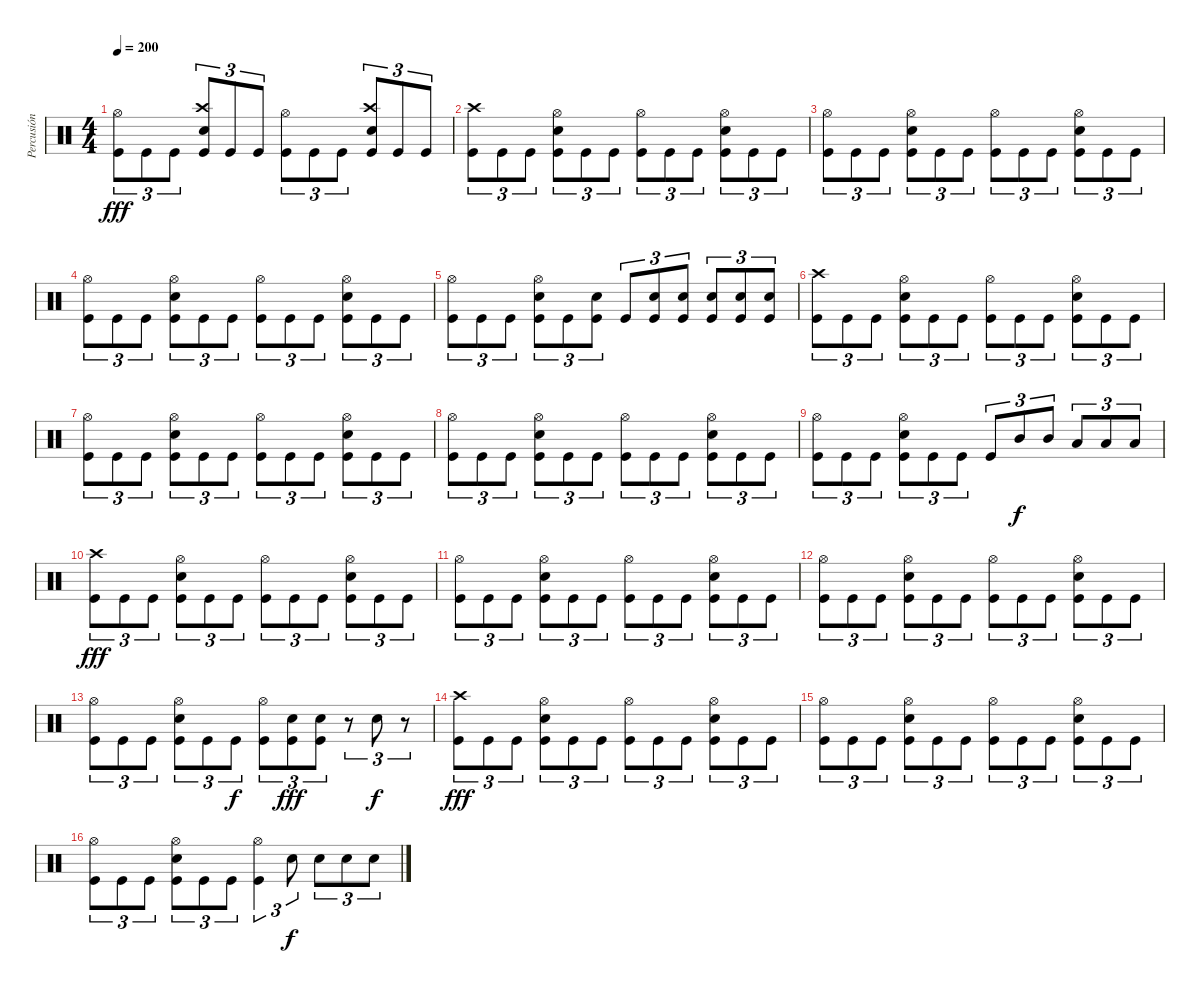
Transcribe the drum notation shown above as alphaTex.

\track ("Percusión" "Percusión") {instrument percussion}
\staff {score}
\articulation defaults
\ts (4 4)
\tempo 200
\clef neutral
\ks c
("Hi-Hat (open)" "Kick (hit)").8{tu (3 2) dy fff} "Kick (hit)".8{tu (3 2)} "Kick (hit)".8{tu (3 2)} ("Crash high (hit)" "Electric Snare (hit)" "Kick (hit)").8{tu (3 2)} "Kick (hit)".8{tu (3 2)} "Kick (hit)".8{tu (3 2)} ("Hi-Hat (open)" "Kick (hit)").8{tu (3 2)} "Kick (hit)".8{tu (3 2)} "Kick (hit)".8{tu (3 2)} ("Crash high (hit)" "Electric Snare (hit)" "Kick (hit)").8{tu (3 2)} "Kick (hit)".8{tu (3 2)} "Kick (hit)".8{tu (3 2)} |
("Crash high (hit)" "Kick (hit)").8{tu (3 2)} "Kick (hit)".8{tu (3 2)} "Kick (hit)".8{tu (3 2)} ("Hi-Hat (open)" "Electric Snare (hit)" "Kick (hit)").8{tu (3 2)} "Kick (hit)".8{tu (3 2)} "Kick (hit)".8{tu (3 2)} ("Hi-Hat (open)" "Kick (hit)").8{tu (3 2)} "Kick (hit)".8{tu (3 2)} "Kick (hit)".8{tu (3 2)} ("Hi-Hat (open)" "Electric Snare (hit)" "Kick (hit)").8{tu (3 2)} "Kick (hit)".8{tu (3 2)} "Kick (hit)".8{tu (3 2)} |
("Hi-Hat (open)" "Kick (hit)").8{tu (3 2)} "Kick (hit)".8{tu (3 2)} "Kick (hit)".8{tu (3 2)} ("Hi-Hat (open)" "Electric Snare (hit)" "Kick (hit)").8{tu (3 2)} "Kick (hit)".8{tu (3 2)} "Kick (hit)".8{tu (3 2)} ("Hi-Hat (open)" "Kick (hit)").8{tu (3 2)} "Kick (hit)".8{tu (3 2)} "Kick (hit)".8{tu (3 2)} ("Hi-Hat (open)" "Electric Snare (hit)" "Kick (hit)").8{tu (3 2)} "Kick (hit)".8{tu (3 2)} "Kick (hit)".8{tu (3 2)} |
("Hi-Hat (open)" "Kick (hit)").8{tu (3 2)} "Kick (hit)".8{tu (3 2)} "Kick (hit)".8{tu (3 2)} ("Hi-Hat (open)" "Electric Snare (hit)" "Kick (hit)").8{tu (3 2)} "Kick (hit)".8{tu (3 2)} "Kick (hit)".8{tu (3 2)} ("Hi-Hat (open)" "Kick (hit)").8{tu (3 2)} "Kick (hit)".8{tu (3 2)} "Kick (hit)".8{tu (3 2)} ("Hi-Hat (open)" "Electric Snare (hit)" "Kick (hit)").8{tu (3 2)} "Kick (hit)".8{tu (3 2)} "Kick (hit)".8{tu (3 2)} |
("Hi-Hat (open)" "Kick (hit)").8{tu (3 2)} "Kick (hit)".8{tu (3 2)} "Kick (hit)".8{tu (3 2)} ("Hi-Hat (open)" "Electric Snare (hit)" "Kick (hit)").8{tu (3 2)} "Kick (hit)".8{tu (3 2)} ("Electric Snare (hit)" "Kick (hit)").8{tu (3 2)} "Kick (hit)".8{tu (3 2)} ("Electric Snare (hit)" "Kick (hit)").8{tu (3 2)} ("Electric Snare (hit)" "Kick (hit)").8{tu (3 2)} ("Electric Snare (hit)" "Kick (hit)").8{tu (3 2)} ("Electric Snare (hit)" "Kick (hit)").8{tu (3 2)} ("Electric Snare (hit)" "Kick (hit)").8{tu (3 2)} |
("Crash high (hit)" "Kick (hit)").8{tu (3 2)} "Kick (hit)".8{tu (3 2)} "Kick (hit)".8{tu (3 2)} ("Hi-Hat (open)" "Electric Snare (hit)" "Kick (hit)").8{tu (3 2)} "Kick (hit)".8{tu (3 2)} "Kick (hit)".8{tu (3 2)} ("Hi-Hat (open)" "Kick (hit)").8{tu (3 2)} "Kick (hit)".8{tu (3 2)} "Kick (hit)".8{tu (3 2)} ("Hi-Hat (open)" "Electric Snare (hit)" "Kick (hit)").8{tu (3 2)} "Kick (hit)".8{tu (3 2)} "Kick (hit)".8{tu (3 2)} |
("Hi-Hat (open)" "Kick (hit)").8{tu (3 2)} "Kick (hit)".8{tu (3 2)} "Kick (hit)".8{tu (3 2)} ("Hi-Hat (open)" "Electric Snare (hit)" "Kick (hit)").8{tu (3 2)} "Kick (hit)".8{tu (3 2)} "Kick (hit)".8{tu (3 2)} ("Hi-Hat (open)" "Kick (hit)").8{tu (3 2)} "Kick (hit)".8{tu (3 2)} "Kick (hit)".8{tu (3 2)} ("Hi-Hat (open)" "Electric Snare (hit)" "Kick (hit)").8{tu (3 2)} "Kick (hit)".8{tu (3 2)} "Kick (hit)".8{tu (3 2)} |
("Hi-Hat (open)" "Kick (hit)").8{tu (3 2)} "Kick (hit)".8{tu (3 2)} "Kick (hit)".8{tu (3 2)} ("Hi-Hat (open)" "Electric Snare (hit)" "Kick (hit)").8{tu (3 2)} "Kick (hit)".8{tu (3 2)} "Kick (hit)".8{tu (3 2)} ("Hi-Hat (open)" "Kick (hit)").8{tu (3 2)} "Kick (hit)".8{tu (3 2)} "Kick (hit)".8{tu (3 2)} ("Hi-Hat (open)" "Electric Snare (hit)" "Kick (hit)").8{tu (3 2)} "Kick (hit)".8{tu (3 2)} "Kick (hit)".8{tu (3 2)} |
("Hi-Hat (open)" "Kick (hit)").8{tu (3 2)} "Kick (hit)".8{tu (3 2)} "Kick (hit)".8{tu (3 2)} ("Hi-Hat (open)" "Electric Snare (hit)" "Kick (hit)").8{tu (3 2)} "Kick (hit)".8{tu (3 2)} "Kick (hit)".8{tu (3 2)} "Kick (hit)".8{tu (3 2)} "Mid Tom (hit)".8{tu (3 2) dy f} "Mid Tom (hit)".8{tu (3 2)} "Low Tom (hit)".8{tu (3 2)} "Low Tom (hit)".8{tu (3 2)} "Low Tom (hit)".8{tu (3 2)} |
("Crash high (hit)" "Kick (hit)").8{tu (3 2) dy fff} "Kick (hit)".8{tu (3 2)} "Kick (hit)".8{tu (3 2)} ("Hi-Hat (open)" "Electric Snare (hit)" "Kick (hit)").8{tu (3 2)} "Kick (hit)".8{tu (3 2)} "Kick (hit)".8{tu (3 2)} ("Hi-Hat (open)" "Kick (hit)").8{tu (3 2)} "Kick (hit)".8{tu (3 2)} "Kick (hit)".8{tu (3 2)} ("Hi-Hat (open)" "Electric Snare (hit)" "Kick (hit)").8{tu (3 2)} "Kick (hit)".8{tu (3 2)} "Kick (hit)".8{tu (3 2)} |
("Hi-Hat (open)" "Kick (hit)").8{tu (3 2)} "Kick (hit)".8{tu (3 2)} "Kick (hit)".8{tu (3 2)} ("Hi-Hat (open)" "Electric Snare (hit)" "Kick (hit)").8{tu (3 2)} "Kick (hit)".8{tu (3 2)} "Kick (hit)".8{tu (3 2)} ("Hi-Hat (open)" "Kick (hit)").8{tu (3 2)} "Kick (hit)".8{tu (3 2)} "Kick (hit)".8{tu (3 2)} ("Hi-Hat (open)" "Electric Snare (hit)" "Kick (hit)").8{tu (3 2)} "Kick (hit)".8{tu (3 2)} "Kick (hit)".8{tu (3 2)} |
("Hi-Hat (open)" "Kick (hit)").8{tu (3 2)} "Kick (hit)".8{tu (3 2)} "Kick (hit)".8{tu (3 2)} ("Hi-Hat (open)" "Electric Snare (hit)" "Kick (hit)").8{tu (3 2)} "Kick (hit)".8{tu (3 2)} "Kick (hit)".8{tu (3 2)} ("Hi-Hat (open)" "Kick (hit)").8{tu (3 2)} "Kick (hit)".8{tu (3 2)} "Kick (hit)".8{tu (3 2)} ("Hi-Hat (open)" "Electric Snare (hit)" "Kick (hit)").8{tu (3 2)} "Kick (hit)".8{tu (3 2)} "Kick (hit)".8{tu (3 2)} |
("Hi-Hat (open)" "Kick (hit)").8{tu (3 2)} "Kick (hit)".8{tu (3 2)} "Kick (hit)".8{tu (3 2)} ("Hi-Hat (open)" "Electric Snare (hit)" "Kick (hit)").8{tu (3 2)} "Kick (hit)".8{tu (3 2)} "Kick (hit)".8{tu (3 2) dy f} ("Hi-Hat (open)" "Kick (hit)").8{tu (3 2)} ("Electric Snare (hit)" "Kick (hit)").8{tu (3 2) dy fff} ("Electric Snare (hit)" "Kick (hit)").8{tu (3 2)} r.8{tu (3 2)} "Electric Snare (hit)".8{tu (3 2) dy f} r.8{tu (3 2)} |
("Crash high (hit)" "Kick (hit)").8{tu (3 2) dy fff} "Kick (hit)".8{tu (3 2)} "Kick (hit)".8{tu (3 2)} ("Hi-Hat (open)" "Electric Snare (hit)" "Kick (hit)").8{tu (3 2)} "Kick (hit)".8{tu (3 2)} "Kick (hit)".8{tu (3 2)} ("Hi-Hat (open)" "Kick (hit)").8{tu (3 2)} "Kick (hit)".8{tu (3 2)} "Kick (hit)".8{tu (3 2)} ("Hi-Hat (open)" "Electric Snare (hit)" "Kick (hit)").8{tu (3 2)} "Kick (hit)".8{tu (3 2)} "Kick (hit)".8{tu (3 2)} |
("Hi-Hat (open)" "Kick (hit)").8{tu (3 2)} "Kick (hit)".8{tu (3 2)} "Kick (hit)".8{tu (3 2)} ("Hi-Hat (open)" "Electric Snare (hit)" "Kick (hit)").8{tu (3 2)} "Kick (hit)".8{tu (3 2)} "Kick (hit)".8{tu (3 2)} ("Hi-Hat (open)" "Kick (hit)").8{tu (3 2)} "Kick (hit)".8{tu (3 2)} "Kick (hit)".8{tu (3 2)} ("Hi-Hat (open)" "Electric Snare (hit)" "Kick (hit)").8{tu (3 2)} "Kick (hit)".8{tu (3 2)} "Kick (hit)".8{tu (3 2)} |
("Hi-Hat (open)" "Kick (hit)").8{tu (3 2)} "Kick (hit)".8{tu (3 2)} "Kick (hit)".8{tu (3 2)} ("Hi-Hat (open)" "Electric Snare (hit)" "Kick (hit)").8{tu (3 2)} "Kick (hit)".8{tu (3 2)} "Kick (hit)".8{tu (3 2)} ("Hi-Hat (open)" "Kick (hit)").4{tu (3 2)} "Electric Snare (hit)".8{tu (3 2) dy f} "Electric Snare (hit)".8{tu (3 2)} "Electric Snare (hit)".8{tu (3 2)} "Electric Snare (hit)".8{tu (3 2)}
